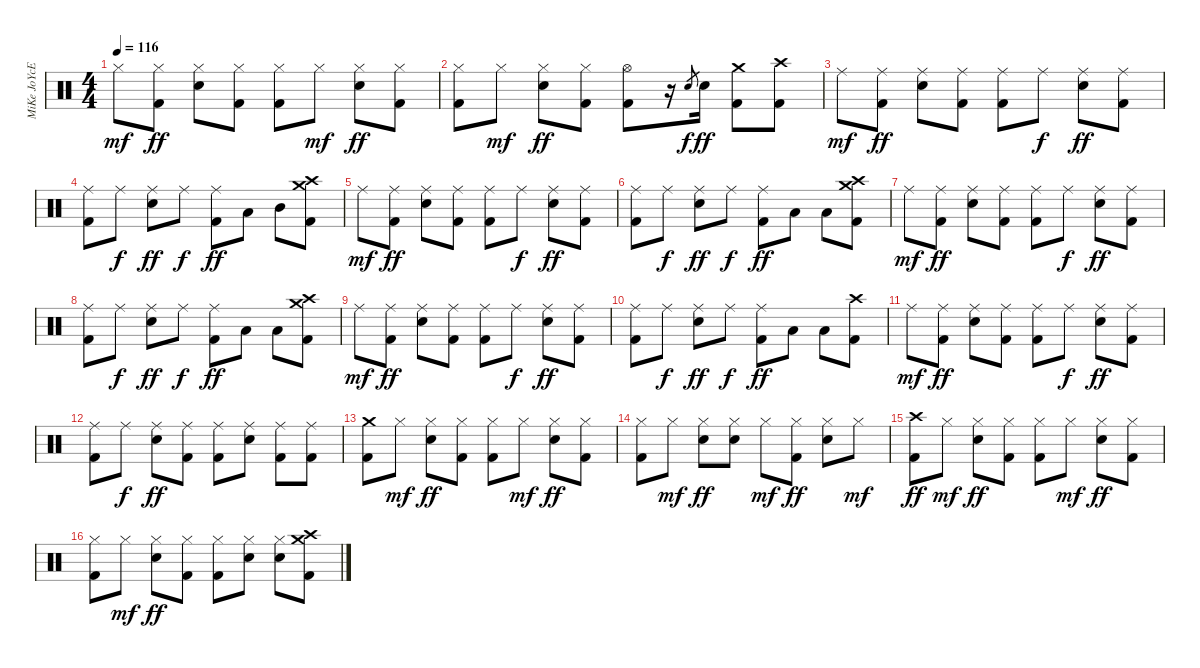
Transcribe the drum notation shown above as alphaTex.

\track ("MiKe JoYcE" "MiKe JoYcE") {instrument percussion}
\staff {score}
\articulation defaults
\ts (4 4)
\tempo 116
\clef neutral
\ks c "Hi-Hat (closed)".8{dy mf}
("Hi-Hat (closed)" "Kick (hit) 2").8{dy ff} ("Hi-Hat (closed)" "Electric Snare (hit)").8 ("Hi-Hat (closed)" "Kick (hit) 2").8 ("Hi-Hat (closed)" "Kick (hit) 2").8 "Hi-Hat (closed)".8{dy mf} ("Hi-Hat (closed)" "Electric Snare (hit)").8{dy ff} ("Hi-Hat (closed)" "Kick (hit) 2").8 |
("Hi-Hat (closed)" "Kick (hit) 2").8 "Hi-Hat (closed)".8{dy mf} ("Hi-Hat (closed)" "Electric Snare (hit)").8{dy ff} ("Hi-Hat (closed)" "Kick (hit) 2").8 ("Hi-Hat (open)" "Kick (hit) 2").8 r.16 "Electric Snare (hit)".8{gr dy f} "Electric Snare (hit)".16{dy ff} ("Crash medium (hit)" "Kick (hit) 2").8 ("Crash high (hit)" "Kick (hit) 2").8 |
"Ride (middle)".8{dy mf} ("Ride (middle)" "Kick (hit) 2").8{dy ff} ("Ride (middle)" "Electric Snare (hit)").8 ("Ride (middle)" "Kick (hit) 2").8 ("Ride (middle)" "Kick (hit) 2").8 "Ride (middle)".8{dy f} ("Ride (middle)" "Electric Snare (hit)").8{dy ff} ("Ride (middle)" "Kick (hit) 2").8 |
("Ride (middle)" "Kick (hit) 2").8 "Ride (middle)".8{dy f} ("Ride (middle)" "Electric Snare (hit)").8{dy ff} "Ride (middle)".8{dy f} ("Ride (middle)" "Kick (hit) 2").8{dy ff} "Low Tom (hit)".8 "Mid Tom (hit)".8 ("Crash high (hit)" "Crash medium (hit)" "Kick (hit) 2").8 |
"Ride (middle)".8{dy mf} ("Ride (middle)" "Kick (hit) 2").8{dy ff} ("Ride (middle)" "Electric Snare (hit)").8 ("Ride (middle)" "Kick (hit) 2").8 ("Ride (middle)" "Kick (hit) 2").8 "Ride (middle)".8{dy f} ("Ride (middle)" "Electric Snare (hit)").8{dy ff} ("Ride (middle)" "Kick (hit) 2").8 |
("Ride (middle)" "Kick (hit) 2").8 "Ride (middle)".8{dy f} ("Ride (middle)" "Electric Snare (hit)").8{dy ff} "Ride (middle)".8{dy f} ("Ride (middle)" "Kick (hit) 2").8{dy ff} "Low Tom (hit)".8 "Low Floor Tom (hit)".8 ("Crash medium (hit)" "Crash high (hit)" "Kick (hit) 2").8 |
"Ride (middle)".8{dy mf} ("Ride (middle)" "Kick (hit) 2").8{dy ff} ("Ride (middle)" "Electric Snare (hit)").8 ("Ride (middle)" "Kick (hit) 2").8 ("Ride (middle)" "Kick (hit) 2").8 "Ride (middle)".8{dy f} ("Ride (middle)" "Electric Snare (hit)").8{dy ff} ("Ride (middle)" "Kick (hit) 2").8 |
("Ride (middle)" "Kick (hit) 2").8 "Ride (middle)".8{dy f} ("Ride (middle)" "Electric Snare (hit)").8{dy ff} "Ride (middle)".8{dy f} ("Ride (middle)" "Kick (hit) 2").8{dy ff} "Low Tom (hit)".8 "Low Floor Tom (hit)".8 ("Crash high (hit)" "Crash medium (hit)" "Kick (hit) 2").8 |
"Ride (middle)".8{dy mf} ("Ride (middle)" "Kick (hit) 2").8{dy ff} ("Ride (middle)" "Electric Snare (hit)").8 ("Ride (middle)" "Kick (hit) 2").8 ("Ride (middle)" "Kick (hit) 2").8 "Ride (middle)".8{dy f} ("Ride (middle)" "Electric Snare (hit)").8{dy ff} ("Ride (middle)" "Kick (hit) 2").8 |
("Ride (middle)" "Kick (hit) 2").8 "Ride (middle)".8{dy f} ("Ride (middle)" "Electric Snare (hit)").8{dy ff} "Ride (middle)".8{dy f} ("Ride (middle)" "Kick (hit) 2").8{dy ff} "Low Tom (hit)".8 "Low Floor Tom (hit)".8 ("Crash high (hit)" "Kick (hit) 2").8 |
"Ride (middle)".8{dy mf} ("Ride (middle)" "Kick (hit) 2").8{dy ff} ("Ride (middle)" "Electric Snare (hit)").8 ("Ride (middle)" "Kick (hit) 2").8 ("Ride (middle)" "Kick (hit) 2").8 "Ride (middle)".8{dy f} ("Ride (middle)" "Electric Snare (hit)").8{dy ff} ("Ride (middle)" "Kick (hit) 2").8 |
("Ride (middle)" "Kick (hit) 2").8 "Ride (middle)".8{dy f} ("Ride (middle)" "Electric Snare (hit)").8{dy ff} ("Ride (middle)" "Kick (hit) 2").8 ("Ride (middle)" "Kick (hit) 2").8 ("Ride (middle)" "Electric Snare (hit)").8 ("Ride (middle)" "Kick (hit) 2").8 ("Ride (middle)" "Kick (hit) 2").8 |
("Crash medium (hit)" "Kick (hit) 2").8 "Hi-Hat (closed)".8{dy mf} ("Hi-Hat (closed)" "Electric Snare (hit)").8{dy ff} ("Hi-Hat (closed)" "Kick (hit) 2").8 ("Hi-Hat (closed)" "Kick (hit) 2").8 "Hi-Hat (closed)".8{dy mf} ("Hi-Hat (closed)" "Electric Snare (hit)").8{dy ff} ("Hi-Hat (closed)" "Kick (hit) 2").8 |
("Hi-Hat (closed)" "Kick (hit) 2").8 "Hi-Hat (closed)".8{dy mf} ("Hi-Hat (closed)" "Electric Snare (hit)").8{dy ff} ("Hi-Hat (closed)" "Electric Snare (hit)").8 "Hi-Hat (closed)".8{dy mf} ("Hi-Hat (closed)" "Kick (hit) 2").8{dy ff} ("Hi-Hat (closed)" "Electric Snare (hit)").8 "Hi-Hat (closed)".8{dy mf} |
("Crash high (hit)" "Kick (hit) 2").8{dy ff} "Hi-Hat (closed)".8{dy mf} ("Hi-Hat (closed)" "Electric Snare (hit)").8{dy ff} ("Hi-Hat (closed)" "Kick (hit) 2").8 ("Hi-Hat (closed)" "Kick (hit) 2").8 "Hi-Hat (closed)".8{dy mf} ("Hi-Hat (closed)" "Electric Snare (hit)").8{dy ff} ("Hi-Hat (closed)" "Kick (hit) 2").8 |
("Hi-Hat (closed)" "Kick (hit) 2").8 "Hi-Hat (closed)".8{dy mf} ("Hi-Hat (closed)" "Electric Snare (hit)").8{dy ff} ("Hi-Hat (closed)" "Kick (hit) 2").8 ("Hi-Hat (closed)" "Kick (hit) 2").8 ("Hi-Hat (closed)" "Electric Snare (hit)").8 ("Hi-Hat (closed)" "Electric Snare (hit)").8 ("Crash high (hit)" "Crash medium (hit)" "Kick (hit) 2").8
